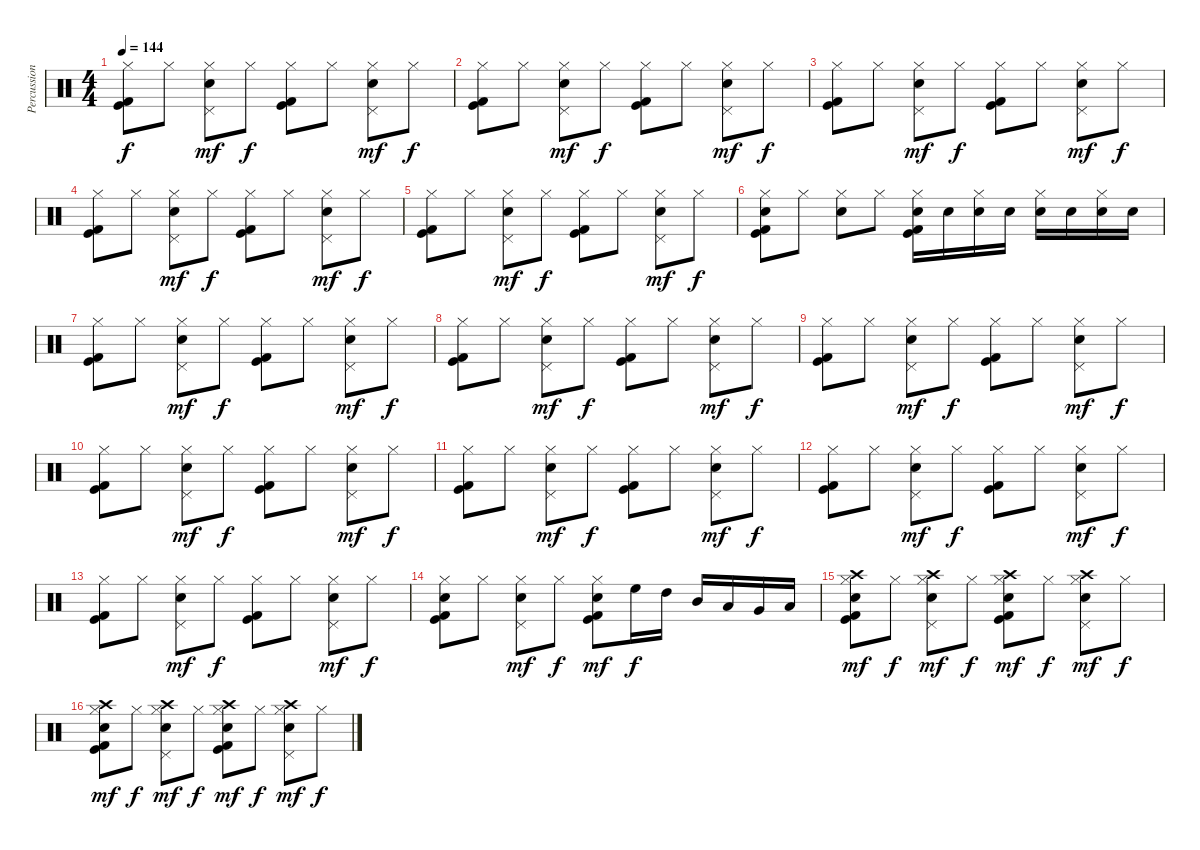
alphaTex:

\track ("Percussions" "Percussion") {instrument percussion}
\staff {score}
\articulation defaults
\ts (4 4)
\tempo 144
\clef neutral
\ks c
("Hi-Hat (closed)" "Kick (hit)" "Kick (hit) 2").8{dy f} "Hi-Hat (closed)".8 ("Pedal Hi-Hat (hit)" "Hi-Hat (closed)" "Snare (hit) 2").8{dy mf} "Hi-Hat (closed)".8{dy f} ("Hi-Hat (closed)" "Kick (hit)" "Kick (hit) 2").8 "Hi-Hat (closed)".8 ("Pedal Hi-Hat (hit)" "Hi-Hat (closed)" "Snare (hit) 2").8{dy mf} "Hi-Hat (closed)".8{dy f} |
("Hi-Hat (closed)" "Kick (hit)" "Kick (hit) 2").8 "Hi-Hat (closed)".8 ("Pedal Hi-Hat (hit)" "Hi-Hat (closed)" "Snare (hit) 2").8{dy mf} "Hi-Hat (closed)".8{dy f} ("Hi-Hat (closed)" "Kick (hit)" "Kick (hit) 2").8 "Hi-Hat (closed)".8 ("Pedal Hi-Hat (hit)" "Hi-Hat (closed)" "Snare (hit) 2").8{dy mf} "Hi-Hat (closed)".8{dy f} |
("Hi-Hat (closed)" "Kick (hit)" "Kick (hit) 2").8 "Hi-Hat (closed)".8 ("Pedal Hi-Hat (hit)" "Hi-Hat (closed)" "Snare (hit) 2").8{dy mf} "Hi-Hat (closed)".8{dy f} ("Hi-Hat (closed)" "Kick (hit)" "Kick (hit) 2").8 "Hi-Hat (closed)".8 ("Pedal Hi-Hat (hit)" "Hi-Hat (closed)" "Snare (hit) 2").8{dy mf} "Hi-Hat (closed)".8{dy f} |
("Hi-Hat (closed)" "Kick (hit)" "Kick (hit) 2").8 "Hi-Hat (closed)".8 ("Pedal Hi-Hat (hit)" "Hi-Hat (closed)" "Snare (hit) 2").8{dy mf} "Hi-Hat (closed)".8{dy f} ("Hi-Hat (closed)" "Kick (hit)" "Kick (hit) 2").8 "Hi-Hat (closed)".8 ("Pedal Hi-Hat (hit)" "Hi-Hat (closed)" "Snare (hit) 2").8{dy mf} "Hi-Hat (closed)".8{dy f} |
("Hi-Hat (closed)" "Kick (hit)" "Kick (hit) 2").8 "Hi-Hat (closed)".8 ("Pedal Hi-Hat (hit)" "Hi-Hat (closed)" "Snare (hit) 2").8{dy mf} "Hi-Hat (closed)".8{dy f} ("Hi-Hat (closed)" "Kick (hit)" "Kick (hit) 2").8 "Hi-Hat (closed)".8 ("Pedal Hi-Hat (hit)" "Hi-Hat (closed)" "Snare (hit) 2").8{dy mf} "Hi-Hat (closed)".8{dy f} |
("Hi-Hat (closed)" "Snare (hit) 2" "Kick (hit)" "Kick (hit) 2").8 "Hi-Hat (closed)".8 ("Hi-Hat (closed)" "Snare (hit) 2").8 "Hi-Hat (closed)".8 ("Hi-Hat (closed)" "Electric Snare (hit)" "Kick (hit)" "Kick (hit) 2").16 "Electric Snare (hit)".16 ("Hi-Hat (closed)" "Electric Snare (hit)").16 "Electric Snare (hit)".16 ("Hi-Hat (closed)" "Electric Snare (hit)").16 "Electric Snare (hit)".16 ("Hi-Hat (closed)" "Electric Snare (hit)").16 "Electric Snare (hit)".16 |
("Hi-Hat (closed)" "Kick (hit)" "Kick (hit) 2").8 "Hi-Hat (closed)".8 ("Pedal Hi-Hat (hit)" "Hi-Hat (closed)" "Snare (hit) 2").8{dy mf} "Hi-Hat (closed)".8{dy f} ("Hi-Hat (closed)" "Kick (hit)" "Kick (hit) 2").8 "Hi-Hat (closed)".8 ("Pedal Hi-Hat (hit)" "Hi-Hat (closed)" "Snare (hit) 2").8{dy mf} "Hi-Hat (closed)".8{dy f} |
("Hi-Hat (closed)" "Kick (hit)" "Kick (hit) 2").8 "Hi-Hat (closed)".8 ("Pedal Hi-Hat (hit)" "Hi-Hat (closed)" "Snare (hit) 2").8{dy mf} "Hi-Hat (closed)".8{dy f} ("Hi-Hat (closed)" "Kick (hit)" "Kick (hit) 2").8 "Hi-Hat (closed)".8 ("Pedal Hi-Hat (hit)" "Hi-Hat (closed)" "Snare (hit) 2").8{dy mf} "Hi-Hat (closed)".8{dy f} |
("Hi-Hat (closed)" "Kick (hit)" "Kick (hit) 2").8 "Hi-Hat (closed)".8 ("Pedal Hi-Hat (hit)" "Hi-Hat (closed)" "Snare (hit) 2").8{dy mf} "Hi-Hat (closed)".8{dy f} ("Hi-Hat (closed)" "Kick (hit)" "Kick (hit) 2").8 "Hi-Hat (closed)".8 ("Pedal Hi-Hat (hit)" "Hi-Hat (closed)" "Snare (hit) 2").8{dy mf} "Hi-Hat (closed)".8{dy f} |
("Hi-Hat (closed)" "Kick (hit)" "Kick (hit) 2").8 "Hi-Hat (closed)".8 ("Pedal Hi-Hat (hit)" "Hi-Hat (closed)" "Snare (hit) 2").8{dy mf} "Hi-Hat (closed)".8{dy f} ("Hi-Hat (closed)" "Kick (hit)" "Kick (hit) 2").8 "Hi-Hat (closed)".8 ("Pedal Hi-Hat (hit)" "Hi-Hat (closed)" "Snare (hit) 2").8{dy mf} "Hi-Hat (closed)".8{dy f} |
("Hi-Hat (closed)" "Kick (hit)" "Kick (hit) 2").8 "Hi-Hat (closed)".8 ("Pedal Hi-Hat (hit)" "Hi-Hat (closed)" "Snare (hit) 2").8{dy mf} "Hi-Hat (closed)".8{dy f} ("Hi-Hat (closed)" "Kick (hit)" "Kick (hit) 2").8 "Hi-Hat (closed)".8 ("Pedal Hi-Hat (hit)" "Hi-Hat (closed)" "Snare (hit) 2").8{dy mf} "Hi-Hat (closed)".8{dy f} |
("Hi-Hat (closed)" "Kick (hit)" "Kick (hit) 2").8 "Hi-Hat (closed)".8 ("Pedal Hi-Hat (hit)" "Hi-Hat (closed)" "Snare (hit) 2").8{dy mf} "Hi-Hat (closed)".8{dy f} ("Hi-Hat (closed)" "Kick (hit)" "Kick (hit) 2").8 "Hi-Hat (closed)".8 ("Pedal Hi-Hat (hit)" "Hi-Hat (closed)" "Snare (hit) 2").8{dy mf} "Hi-Hat (closed)".8{dy f} |
("Hi-Hat (closed)" "Kick (hit)" "Kick (hit) 2").8 "Hi-Hat (closed)".8 ("Pedal Hi-Hat (hit)" "Hi-Hat (closed)" "Snare (hit) 2").8{dy mf} "Hi-Hat (closed)".8{dy f} ("Hi-Hat (closed)" "Kick (hit)" "Kick (hit) 2").8 "Hi-Hat (closed)".8 ("Pedal Hi-Hat (hit)" "Hi-Hat (closed)" "Snare (hit) 2").8{dy mf} "Hi-Hat (closed)".8{dy f} |
("Hi-Hat (closed)" "Snare (hit) 2" "Kick (hit)" "Kick (hit) 2").8 "Hi-Hat (closed)".8 ("Pedal Hi-Hat (hit)" "Hi-Hat (closed)" "Snare (hit) 2").8{dy mf} "Hi-Hat (closed)".8{dy f} ("Hi-Hat (closed)" "Electric Snare (hit)" "Kick (hit)" "Kick (hit) 2").8{dy mf} "High Floor Tom (hit)".16{dy f} "High Tom (hit)".16 "Mid Tom (hit)".16 "Low Tom (hit)".16 "Very Low Tom (hit)".16 "Low Floor Tom (hit)".16 |
("Crash high (hit)" "Hi-Hat (closed)" "Snare (hit) 2" "Kick (hit)" "Kick (hit) 2").8{dy mf} "Hi-Hat (closed)".8{dy f} ("Crash high (hit)" "Pedal Hi-Hat (hit)" "Hi-Hat (closed)" "Snare (hit) 2").8{dy mf} "Hi-Hat (closed)".8{dy f} ("Crash high (hit)" "Hi-Hat (closed)" "Snare (hit) 2" "Kick (hit)" "Kick (hit) 2").8{dy mf} "Hi-Hat (closed)".8{dy f} ("Crash high (hit)" "Pedal Hi-Hat (hit)" "Hi-Hat (closed)" "Snare (hit) 2").8{dy mf} "Hi-Hat (closed)".8{dy f} |
("Crash high (hit)" "Hi-Hat (closed)" "Snare (hit) 2" "Kick (hit)" "Kick (hit) 2").8{dy mf} "Hi-Hat (closed)".8{dy f} ("Crash high (hit)" "Pedal Hi-Hat (hit)" "Hi-Hat (closed)" "Snare (hit) 2").8{dy mf} "Hi-Hat (closed)".8{dy f} ("Crash high (hit)" "Hi-Hat (closed)" "Snare (hit) 2" "Kick (hit)" "Kick (hit) 2").8{dy mf} "Hi-Hat (closed)".8{dy f} ("Crash high (hit)" "Pedal Hi-Hat (hit)" "Hi-Hat (closed)" "Snare (hit) 2").8{dy mf} "Hi-Hat (closed)".8{dy f}
